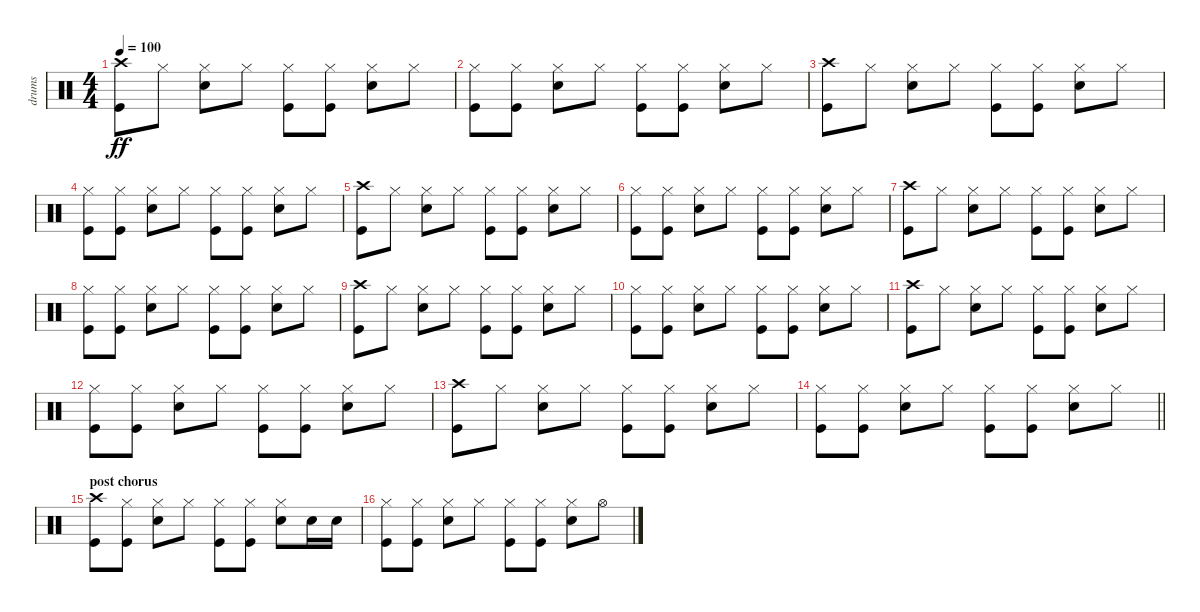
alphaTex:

\track ("drums" "drums") {instrument percussion}
\staff {score}
\articulation defaults
\ts (4 4)
\tempo 100
\clef neutral
\ks c
("Crash high (hit)" "Kick (hit)").8{dy ff} "Hi-Hat (closed)".8 ("Hi-Hat (closed)" "Electric Snare (hit)").8 "Hi-Hat (closed)".8 ("Hi-Hat (closed)" "Kick (hit)").8 ("Hi-Hat (closed)" "Kick (hit)").8 ("Hi-Hat (closed)" "Electric Snare (hit)").8 "Hi-Hat (closed)".8 |
("Hi-Hat (closed)" "Kick (hit)").8 ("Hi-Hat (closed)" "Kick (hit)").8 ("Hi-Hat (closed)" "Electric Snare (hit)").8 "Hi-Hat (closed)".8 ("Hi-Hat (closed)" "Kick (hit)").8 ("Hi-Hat (closed)" "Kick (hit)").8 ("Hi-Hat (closed)" "Electric Snare (hit)").8 "Hi-Hat (closed)".8 |
("Crash high (hit)" "Kick (hit)").8 "Hi-Hat (closed)".8 ("Hi-Hat (closed)" "Electric Snare (hit)").8 "Hi-Hat (closed)".8 ("Hi-Hat (closed)" "Kick (hit)").8 ("Hi-Hat (closed)" "Kick (hit)").8 ("Hi-Hat (closed)" "Electric Snare (hit)").8 "Hi-Hat (closed)".8 |
("Hi-Hat (closed)" "Kick (hit)").8 ("Hi-Hat (closed)" "Kick (hit)").8 ("Hi-Hat (closed)" "Electric Snare (hit)").8 "Hi-Hat (closed)".8 ("Hi-Hat (closed)" "Kick (hit)").8 ("Hi-Hat (closed)" "Kick (hit)").8 ("Hi-Hat (closed)" "Electric Snare (hit)").8 "Hi-Hat (closed)".8 |
("Crash high (hit)" "Kick (hit)").8 "Hi-Hat (closed)".8 ("Hi-Hat (closed)" "Electric Snare (hit)").8 "Hi-Hat (closed)".8 ("Hi-Hat (closed)" "Kick (hit)").8 ("Hi-Hat (closed)" "Kick (hit)").8 ("Hi-Hat (closed)" "Electric Snare (hit)").8 "Hi-Hat (closed)".8 |
("Hi-Hat (closed)" "Kick (hit)").8 ("Hi-Hat (closed)" "Kick (hit)").8 ("Hi-Hat (closed)" "Electric Snare (hit)").8 "Hi-Hat (closed)".8 ("Hi-Hat (closed)" "Kick (hit)").8 ("Hi-Hat (closed)" "Kick (hit)").8 ("Hi-Hat (closed)" "Electric Snare (hit)").8 "Hi-Hat (closed)".8 |
("Crash high (hit)" "Kick (hit)").8 "Hi-Hat (closed)".8 ("Hi-Hat (closed)" "Electric Snare (hit)").8 "Hi-Hat (closed)".8 ("Hi-Hat (closed)" "Kick (hit)").8 ("Hi-Hat (closed)" "Kick (hit)").8 ("Hi-Hat (closed)" "Electric Snare (hit)").8 "Hi-Hat (closed)".8 |
("Hi-Hat (closed)" "Kick (hit)").8 ("Hi-Hat (closed)" "Kick (hit)").8 ("Hi-Hat (closed)" "Electric Snare (hit)").8 "Hi-Hat (closed)".8 ("Hi-Hat (closed)" "Kick (hit)").8 ("Hi-Hat (closed)" "Kick (hit)").8 ("Hi-Hat (closed)" "Electric Snare (hit)").8 "Hi-Hat (closed)".8 |
("Crash high (hit)" "Kick (hit)").8 "Hi-Hat (closed)".8 ("Hi-Hat (closed)" "Electric Snare (hit)").8 "Hi-Hat (closed)".8 ("Hi-Hat (closed)" "Kick (hit)").8 ("Hi-Hat (closed)" "Kick (hit)").8 ("Hi-Hat (closed)" "Electric Snare (hit)").8 "Hi-Hat (closed)".8 |
("Hi-Hat (closed)" "Kick (hit)").8 ("Hi-Hat (closed)" "Kick (hit)").8 ("Hi-Hat (closed)" "Electric Snare (hit)").8 "Hi-Hat (closed)".8 ("Hi-Hat (closed)" "Kick (hit)").8 ("Hi-Hat (closed)" "Kick (hit)").8 ("Hi-Hat (closed)" "Electric Snare (hit)").8 "Hi-Hat (closed)".8 |
("Crash high (hit)" "Kick (hit)").8 "Hi-Hat (closed)".8 ("Hi-Hat (closed)" "Electric Snare (hit)").8 "Hi-Hat (closed)".8 ("Hi-Hat (closed)" "Kick (hit)").8 ("Hi-Hat (closed)" "Kick (hit)").8 ("Hi-Hat (closed)" "Electric Snare (hit)").8 "Hi-Hat (closed)".8 |
("Hi-Hat (closed)" "Kick (hit)").8 ("Hi-Hat (closed)" "Kick (hit)").8 ("Hi-Hat (closed)" "Electric Snare (hit)").8 "Hi-Hat (closed)".8 ("Hi-Hat (closed)" "Kick (hit)").8 ("Hi-Hat (closed)" "Kick (hit)").8 ("Hi-Hat (closed)" "Electric Snare (hit)").8 "Hi-Hat (closed)".8 |
("Crash high (hit)" "Kick (hit)").8 "Hi-Hat (closed)".8 ("Hi-Hat (closed)" "Electric Snare (hit)").8 "Hi-Hat (closed)".8 ("Hi-Hat (closed)" "Kick (hit)").8 ("Hi-Hat (closed)" "Kick (hit)").8 ("Hi-Hat (closed)" "Electric Snare (hit)").8 "Hi-Hat (closed)".8 |
\barLineRight lightlight
("Hi-Hat (closed)" "Kick (hit)").8 ("Hi-Hat (closed)" "Kick (hit)").8 ("Hi-Hat (closed)" "Electric Snare (hit)").8 "Hi-Hat (closed)".8 ("Hi-Hat (closed)" "Kick (hit)").8 ("Hi-Hat (closed)" "Kick (hit)").8 ("Hi-Hat (closed)" "Electric Snare (hit)").8 "Hi-Hat (closed)".8 |
\section ("" "post chorus")
("Crash high (hit)" "Kick (hit)").8 ("Hi-Hat (closed)" "Kick (hit)").8 ("Hi-Hat (closed)" "Electric Snare (hit)").8 "Hi-Hat (closed)".8 ("Hi-Hat (closed)" "Kick (hit)").8 ("Hi-Hat (closed)" "Kick (hit)").8 ("Hi-Hat (closed)" "Electric Snare (hit)").8 "Electric Snare (hit)".16 "Electric Snare (hit)".16 |
("Hi-Hat (closed)" "Kick (hit)").8 ("Hi-Hat (closed)" "Kick (hit)").8 ("Hi-Hat (closed)" "Electric Snare (hit)").8 "Hi-Hat (closed)".8 ("Hi-Hat (closed)" "Kick (hit)").8 ("Hi-Hat (closed)" "Kick (hit)").8 ("Hi-Hat (closed)" "Electric Snare (hit)").8 "Hi-Hat (open)".8
